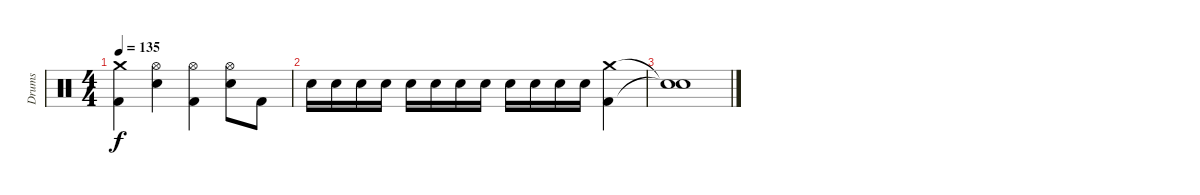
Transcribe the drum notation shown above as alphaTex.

\track ("Drums" "Drums") {instrument percussion}
\staff {score}
\articulation defaults
\ts (4 4)
\tempo 135
\clef neutral
\ks c
("Crash medium (hit)" "Kick (hit) 2").4{dy f} ("Hi-Hat (open)" "Electric Snare (hit)").4 ("Hi-Hat (open)" "Kick (hit) 2").4 ("Hi-Hat (open)" "Electric Snare (hit)").8 "Kick (hit) 2".8 |
"Electric Snare (hit)".16 "Electric Snare (hit)".16 "Electric Snare (hit)".16 "Electric Snare (hit)".16 "Electric Snare (hit)".16 "Electric Snare (hit)".16 "Electric Snare (hit)".16 "Electric Snare (hit)".16 "Electric Snare (hit)".16 "Electric Snare (hit)".16 "Electric Snare (hit)".16 "Electric Snare (hit)".16 ("Kick (hit) 2" "Crash medium (hit)").4 |
("Snare (hit)"{t} "Snare (hit)"{t}).1
